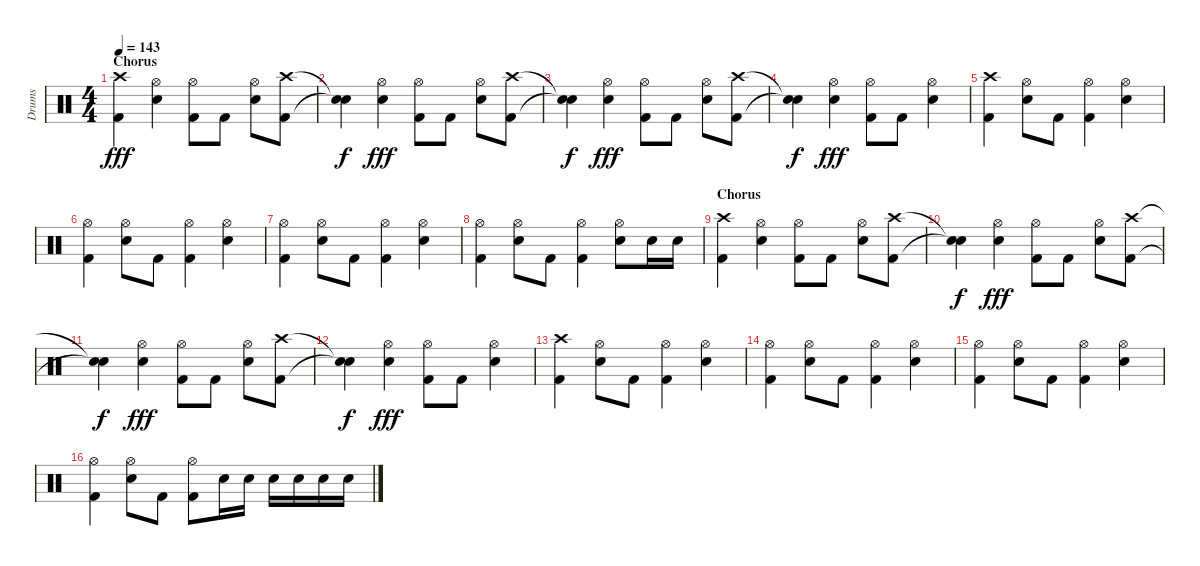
\track ("Drums" "Drums") {instrument percussion}
\staff {score}
\articulation defaults
\ts (4 4)
\section ("" "Chorus")
\tempo 143
\clef neutral
\ks c
("Crash high (hit)" "Kick (hit) 2").4{dy fff} ("Hi-Hat (open)" "Snare (hit) 2").4 ("Hi-Hat (open)" "Kick (hit) 2").8 "Kick (hit) 2".8 ("Hi-Hat (open)" "Snare (hit) 2").8 ("Crash high (hit)" "Kick (hit) 2").8 |
("Snare (hit)"{t} "Snare (hit)"{t}).4{dy f} ("Hi-Hat (open)" "Snare (hit) 2").4{dy fff} ("Hi-Hat (open)" "Kick (hit) 2").8 "Kick (hit) 2".8 ("Hi-Hat (open)" "Snare (hit) 2").8 ("Crash high (hit)" "Kick (hit) 2").8 |
("Snare (hit)"{t} "Snare (hit)"{t}).4{dy f} ("Hi-Hat (open)" "Snare (hit) 2").4{dy fff} ("Hi-Hat (open)" "Kick (hit) 2").8 "Kick (hit) 2".8 ("Hi-Hat (open)" "Snare (hit) 2").8 ("Crash high (hit)" "Kick (hit) 2").8 |
("Snare (hit)"{t} "Snare (hit)"{t}).4{dy f} ("Hi-Hat (open)" "Snare (hit) 2").4{dy fff} ("Hi-Hat (open)" "Kick (hit) 2").8 "Kick (hit) 2".8 ("Hi-Hat (open)" "Snare (hit) 2").4 |
("Crash high (hit)" "Kick (hit) 2").4 ("Hi-Hat (open)" "Snare (hit) 2").8 "Kick (hit) 2".8 ("Hi-Hat (open)" "Kick (hit) 2").4 ("Hi-Hat (open)" "Snare (hit) 2").4 |
("Hi-Hat (open)" "Kick (hit) 2").4 ("Hi-Hat (open)" "Snare (hit) 2").8 "Kick (hit) 2".8 ("Hi-Hat (open)" "Kick (hit) 2").4 ("Hi-Hat (open)" "Snare (hit) 2").4 |
("Hi-Hat (open)" "Kick (hit) 2").4 ("Hi-Hat (open)" "Snare (hit) 2").8 "Kick (hit) 2".8 ("Hi-Hat (open)" "Kick (hit) 2").4 ("Hi-Hat (open)" "Snare (hit) 2").4 |
("Hi-Hat (open)" "Kick (hit) 2").4 ("Hi-Hat (open)" "Snare (hit) 2").8 "Kick (hit) 2".8 ("Hi-Hat (open)" "Kick (hit) 2").4 ("Hi-Hat (open)" "Snare (hit) 2").8 "Snare (hit) 2".16 "Snare (hit) 2".16 |
\section ("" "Chorus")
("Crash high (hit)" "Kick (hit) 2").4 ("Hi-Hat (open)" "Snare (hit) 2").4 ("Hi-Hat (open)" "Kick (hit) 2").8 "Kick (hit) 2".8 ("Hi-Hat (open)" "Snare (hit) 2").8 ("Crash high (hit)" "Kick (hit) 2").8 |
("Snare (hit)"{t} "Snare (hit)"{t}).4{dy f} ("Hi-Hat (open)" "Snare (hit) 2").4{dy fff} ("Hi-Hat (open)" "Kick (hit) 2").8 "Kick (hit) 2".8 ("Hi-Hat (open)" "Snare (hit) 2").8 ("Crash high (hit)" "Kick (hit) 2").8 |
("Snare (hit)"{t} "Snare (hit)"{t}).4{dy f} ("Hi-Hat (open)" "Snare (hit) 2").4{dy fff} ("Hi-Hat (open)" "Kick (hit) 2").8 "Kick (hit) 2".8 ("Hi-Hat (open)" "Snare (hit) 2").8 ("Crash high (hit)" "Kick (hit) 2").8 |
("Snare (hit)"{t} "Snare (hit)"{t}).4{dy f} ("Hi-Hat (open)" "Snare (hit) 2").4{dy fff} ("Hi-Hat (open)" "Kick (hit) 2").8 "Kick (hit) 2".8 ("Hi-Hat (open)" "Snare (hit) 2").4 |
("Crash high (hit)" "Kick (hit) 2").4 ("Hi-Hat (open)" "Snare (hit) 2").8 "Kick (hit) 2".8 ("Hi-Hat (open)" "Kick (hit) 2").4 ("Hi-Hat (open)" "Snare (hit) 2").4 |
("Hi-Hat (open)" "Kick (hit) 2").4 ("Hi-Hat (open)" "Snare (hit) 2").8 "Kick (hit) 2".8 ("Hi-Hat (open)" "Kick (hit) 2").4 ("Hi-Hat (open)" "Snare (hit) 2").4 |
("Hi-Hat (open)" "Kick (hit) 2").4 ("Hi-Hat (open)" "Snare (hit) 2").8 "Kick (hit) 2".8 ("Hi-Hat (open)" "Kick (hit) 2").4 ("Hi-Hat (open)" "Snare (hit) 2").4 |
("Hi-Hat (open)" "Kick (hit) 2").4 ("Hi-Hat (open)" "Snare (hit) 2").8 "Kick (hit) 2".8 ("Hi-Hat (open)" "Kick (hit) 2").8 "Snare (hit) 2".16 "Snare (hit) 2".16 "Snare (hit) 2".16 "Snare (hit) 2".16 "Snare (hit) 2".16 "Snare (hit) 2".16
